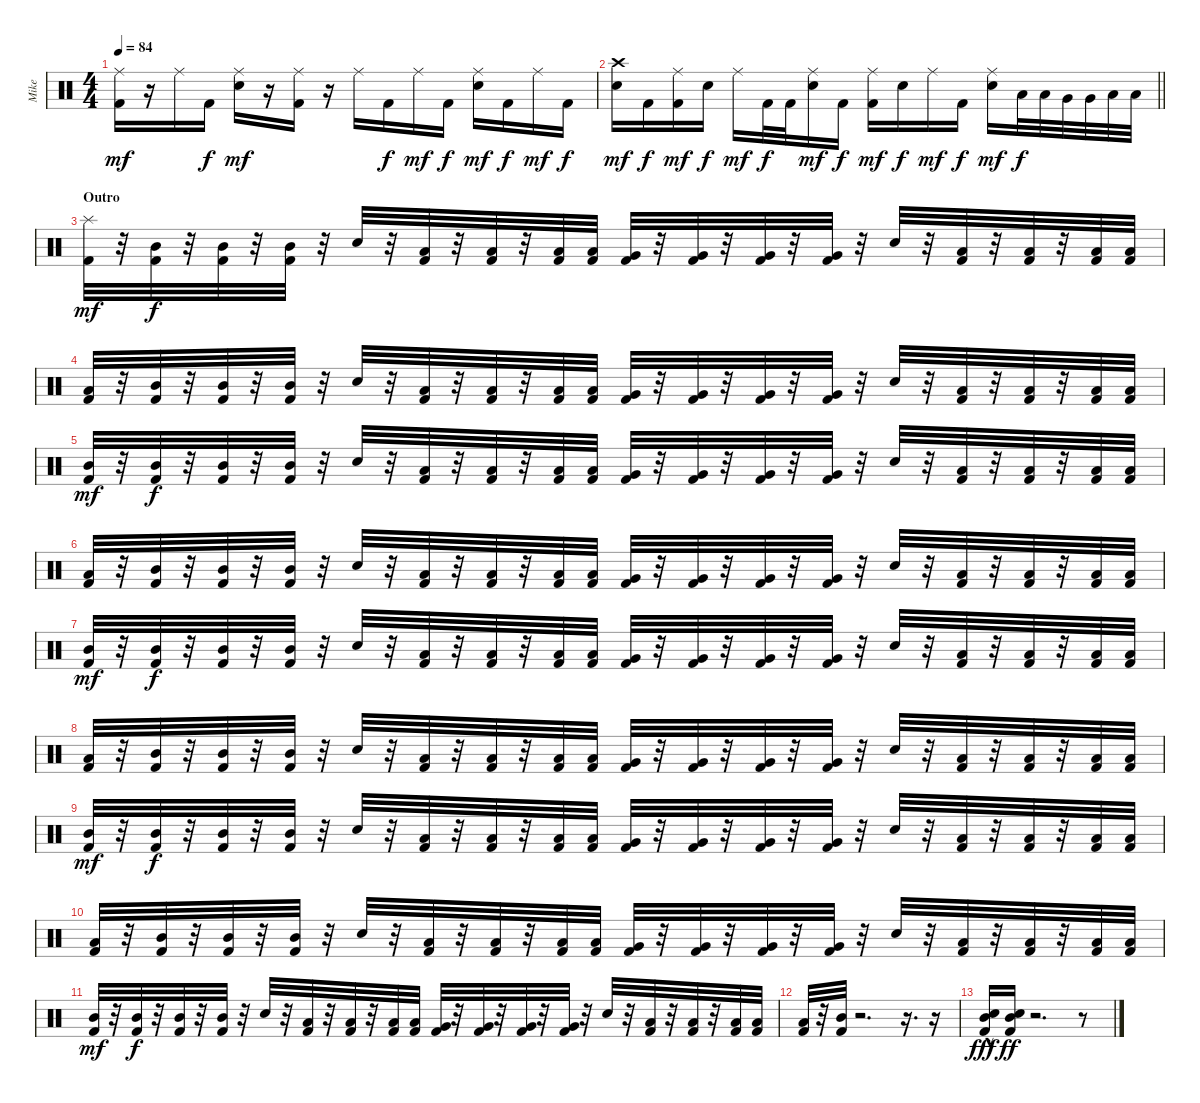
\track ("Mike" "Mike") {instrument percussion}
\staff {score}
\articulation defaults
\ts (4 4)
\tempo 84
\clef neutral
\ks c
("Ride (middle)" "Kick (hit) 2").16{dy mf} r.16 "Ride (middle)".16 "Kick (hit) 2".16{dy f} ("Ride (middle)" "Snare (hit) 2").16{dy mf} r.16 ("Ride (middle)" "Kick (hit) 2").16 r.16 "Ride (middle)".16 "Kick (hit) 2".16{dy f} "Ride (middle)".16{dy mf} "Kick (hit) 2".16{dy f} ("Ride (middle)" "Snare (hit) 2").16{dy mf} "Kick (hit) 2".16{dy f} "Ride (middle)".16{dy mf} "Kick (hit) 2".16{dy f} |
\barLineRight lightlight
("Crash high (hit)" "Snare (hit) 2").16{dy mf} "Kick (hit) 2".16{dy f} ("Ride (middle)" "Kick (hit) 2").16{dy mf} "Snare (hit) 2".16{dy f} "Ride (middle)".16{dy mf} "Kick (hit) 2".32{dy f} "Kick (hit) 2".32 ("Ride (middle)" "Snare (hit) 2").16{dy mf} "Kick (hit) 2".16{dy f} ("Ride (middle)" "Kick (hit) 2").16{dy mf} "Snare (hit) 2".16{dy f} "Ride (middle)".16{dy mf} "Kick (hit) 2".16{dy f} ("Ride (middle)" "Snare (hit) 2").16{dy mf} "Low Tom (hit)".32{dy f} "Low Tom (hit)".32 "Very Low Tom (hit)".32 "Very Low Tom (hit)".32 "Low Floor Tom (hit)".32 "Low Floor Tom (hit)".32 |
\section ("" "Outro")
("Splash (hit)" "Kick (hit) 2").32{dy mf} r.32 ("Mid Tom (hit)" "Kick (hit) 2").32{dy f} r.32 ("Mid Tom (hit)" "Kick (hit) 2").32 r.32 ("Mid Tom (hit)" "Kick (hit) 2").32 r.32 "Snare (hit) 2".32 r.32 ("Low Tom (hit)" "Kick (hit) 2").32 r.32 ("Low Tom (hit)" "Kick (hit) 2").32 r.32 ("Low Tom (hit)" "Kick (hit) 2").32 ("Low Tom (hit)" "Kick (hit) 2").32 ("Very Low Tom (hit)" "Kick (hit) 2").32 r.32 ("Very Low Tom (hit)" "Kick (hit) 2").32 r.32 ("Very Low Tom (hit)" "Kick (hit) 2").32 r.32 ("Very Low Tom (hit)" "Kick (hit) 2").32 r.32 "Snare (hit) 2".32 r.32 ("Low Tom (hit)" "Kick (hit) 2").32 r.32 ("Low Tom (hit)" "Kick (hit) 2").32 r.32 ("Low Tom (hit)" "Kick (hit) 2").32 ("Low Tom (hit)" "Kick (hit) 2").32 |
("Low Tom (hit)" "Kick (hit) 2").32 r.32 ("Mid Tom (hit)" "Kick (hit) 2").32 r.32 ("Mid Tom (hit)" "Kick (hit) 2").32 r.32 ("Mid Tom (hit)" "Kick (hit) 2").32 r.32 "Snare (hit) 2".32 r.32 ("Low Tom (hit)" "Kick (hit) 2").32 r.32 ("Low Tom (hit)" "Kick (hit) 2").32 r.32 ("Low Tom (hit)" "Kick (hit) 2").32 ("Low Tom (hit)" "Kick (hit) 2").32 ("Very Low Tom (hit)" "Kick (hit) 2").32 r.32 ("Very Low Tom (hit)" "Kick (hit) 2").32 r.32 ("Very Low Tom (hit)" "Kick (hit) 2").32 r.32 ("Very Low Tom (hit)" "Kick (hit) 2").32 r.32 "Snare (hit) 2".32 r.32 ("Low Tom (hit)" "Kick (hit) 2").32 r.32 ("Low Tom (hit)" "Kick (hit) 2").32 r.32 ("Low Tom (hit)" "Kick (hit) 2").32 ("Low Tom (hit)" "Kick (hit) 2").32 |
("Mid Tom (hit)" "Kick (hit) 2").32{dy mf} r.32 ("Mid Tom (hit)" "Kick (hit) 2").32{dy f} r.32 ("Mid Tom (hit)" "Kick (hit) 2").32 r.32 ("Mid Tom (hit)" "Kick (hit) 2").32 r.32 "Snare (hit) 2".32 r.32 ("Low Tom (hit)" "Kick (hit) 2").32 r.32 ("Low Tom (hit)" "Kick (hit) 2").32 r.32 ("Low Tom (hit)" "Kick (hit) 2").32 ("Low Tom (hit)" "Kick (hit) 2").32 ("Very Low Tom (hit)" "Kick (hit) 2").32 r.32 ("Very Low Tom (hit)" "Kick (hit) 2").32 r.32 ("Very Low Tom (hit)" "Kick (hit) 2").32 r.32 ("Very Low Tom (hit)" "Kick (hit) 2").32 r.32 "Snare (hit) 2".32 r.32 ("Low Tom (hit)" "Kick (hit) 2").32 r.32 ("Low Tom (hit)" "Kick (hit) 2").32 r.32 ("Low Tom (hit)" "Kick (hit) 2").32 ("Low Tom (hit)" "Kick (hit) 2").32 |
("Low Tom (hit)" "Kick (hit) 2").32 r.32 ("Mid Tom (hit)" "Kick (hit) 2").32 r.32 ("Mid Tom (hit)" "Kick (hit) 2").32 r.32 ("Mid Tom (hit)" "Kick (hit) 2").32 r.32 "Snare (hit) 2".32 r.32 ("Low Tom (hit)" "Kick (hit) 2").32 r.32 ("Low Tom (hit)" "Kick (hit) 2").32 r.32 ("Low Tom (hit)" "Kick (hit) 2").32 ("Low Tom (hit)" "Kick (hit) 2").32 ("Very Low Tom (hit)" "Kick (hit) 2").32 r.32 ("Very Low Tom (hit)" "Kick (hit) 2").32 r.32 ("Very Low Tom (hit)" "Kick (hit) 2").32 r.32 ("Very Low Tom (hit)" "Kick (hit) 2").32 r.32 "Snare (hit) 2".32 r.32 ("Low Tom (hit)" "Kick (hit) 2").32 r.32 ("Low Tom (hit)" "Kick (hit) 2").32 r.32 ("Low Tom (hit)" "Kick (hit) 2").32 ("Low Tom (hit)" "Kick (hit) 2").32 |
("Mid Tom (hit)" "Kick (hit) 2").32{dy mf volume 2} r.32 ("Mid Tom (hit)" "Kick (hit) 2").32{dy f} r.32 ("Mid Tom (hit)" "Kick (hit) 2").32 r.32 ("Mid Tom (hit)" "Kick (hit) 2").32 r.32 "Snare (hit) 2".32 r.32 ("Low Tom (hit)" "Kick (hit) 2").32 r.32 ("Low Tom (hit)" "Kick (hit) 2").32 r.32 ("Low Tom (hit)" "Kick (hit) 2").32 ("Low Tom (hit)" "Kick (hit) 2").32 ("Very Low Tom (hit)" "Kick (hit) 2").32 r.32 ("Very Low Tom (hit)" "Kick (hit) 2").32 r.32 ("Very Low Tom (hit)" "Kick (hit) 2").32 r.32 ("Very Low Tom (hit)" "Kick (hit) 2").32 r.32 "Snare (hit) 2".32 r.32 ("Low Tom (hit)" "Kick (hit) 2").32 r.32 ("Low Tom (hit)" "Kick (hit) 2").32 r.32 ("Low Tom (hit)" "Kick (hit) 2").32 ("Low Tom (hit)" "Kick (hit) 2").32 |
("Low Tom (hit)" "Kick (hit) 2").32 r.32 ("Mid Tom (hit)" "Kick (hit) 2").32 r.32 ("Mid Tom (hit)" "Kick (hit) 2").32 r.32 ("Mid Tom (hit)" "Kick (hit) 2").32 r.32 "Snare (hit) 2".32 r.32 ("Low Tom (hit)" "Kick (hit) 2").32 r.32 ("Low Tom (hit)" "Kick (hit) 2").32 r.32 ("Low Tom (hit)" "Kick (hit) 2").32 ("Low Tom (hit)" "Kick (hit) 2").32 ("Very Low Tom (hit)" "Kick (hit) 2").32 r.32 ("Very Low Tom (hit)" "Kick (hit) 2").32 r.32 ("Very Low Tom (hit)" "Kick (hit) 2").32 r.32 ("Very Low Tom (hit)" "Kick (hit) 2").32 r.32 "Snare (hit) 2".32 r.32 ("Low Tom (hit)" "Kick (hit) 2").32 r.32 ("Low Tom (hit)" "Kick (hit) 2").32 r.32 ("Low Tom (hit)" "Kick (hit) 2").32 ("Low Tom (hit)" "Kick (hit) 2").32 |
("Mid Tom (hit)" "Kick (hit) 2").32{dy mf} r.32 ("Mid Tom (hit)" "Kick (hit) 2").32{dy f} r.32 ("Mid Tom (hit)" "Kick (hit) 2").32 r.32 ("Mid Tom (hit)" "Kick (hit) 2").32 r.32 "Snare (hit) 2".32 r.32 ("Low Tom (hit)" "Kick (hit) 2").32 r.32 ("Low Tom (hit)" "Kick (hit) 2").32 r.32 ("Low Tom (hit)" "Kick (hit) 2").32 ("Low Tom (hit)" "Kick (hit) 2").32 ("Very Low Tom (hit)" "Kick (hit) 2").32 r.32 ("Very Low Tom (hit)" "Kick (hit) 2").32 r.32 ("Very Low Tom (hit)" "Kick (hit) 2").32 r.32 ("Very Low Tom (hit)" "Kick (hit) 2").32 r.32 "Snare (hit) 2".32 r.32 ("Low Tom (hit)" "Kick (hit) 2").32 r.32 ("Low Tom (hit)" "Kick (hit) 2").32 r.32 ("Low Tom (hit)" "Kick (hit) 2").32 ("Low Tom (hit)" "Kick (hit) 2").32 |
("Low Tom (hit)" "Kick (hit) 2").32 r.32 ("Mid Tom (hit)" "Kick (hit) 2").32 r.32 ("Mid Tom (hit)" "Kick (hit) 2").32 r.32 ("Mid Tom (hit)" "Kick (hit) 2").32 r.32 "Snare (hit) 2".32 r.32 ("Low Tom (hit)" "Kick (hit) 2").32 r.32 ("Low Tom (hit)" "Kick (hit) 2").32 r.32 ("Low Tom (hit)" "Kick (hit) 2").32 ("Low Tom (hit)" "Kick (hit) 2").32 ("Very Low Tom (hit)" "Kick (hit) 2").32 r.32 ("Very Low Tom (hit)" "Kick (hit) 2").32 r.32 ("Very Low Tom (hit)" "Kick (hit) 2").32 r.32 ("Very Low Tom (hit)" "Kick (hit) 2").32 r.32 "Snare (hit) 2".32 r.32 ("Low Tom (hit)" "Kick (hit) 2").32 r.32 ("Low Tom (hit)" "Kick (hit) 2").32 r.32 ("Low Tom (hit)" "Kick (hit) 2").32 ("Low Tom (hit)" "Kick (hit) 2").32 |
("Mid Tom (hit)" "Kick (hit) 2").32{dy mf volume 0} r.32 ("Mid Tom (hit)" "Kick (hit) 2").32{dy f} r.32 ("Mid Tom (hit)" "Kick (hit) 2").32 r.32 ("Mid Tom (hit)" "Kick (hit) 2").32 r.32 "Snare (hit) 2".32 r.32 ("Low Tom (hit)" "Kick (hit) 2").32 r.32 ("Low Tom (hit)" "Kick (hit) 2").32 r.32 ("Low Tom (hit)" "Kick (hit) 2").32 ("Low Tom (hit)" "Kick (hit) 2").32 ("Very Low Tom (hit)" "Kick (hit) 2").32 r.32 ("Very Low Tom (hit)" "Kick (hit) 2").32 r.32 ("Very Low Tom (hit)" "Kick (hit) 2").32 r.32 ("Very Low Tom (hit)" "Kick (hit) 2").32 r.32 "Snare (hit) 2".32 r.32 ("Low Tom (hit)" "Kick (hit) 2").32 r.32 ("Low Tom (hit)" "Kick (hit) 2").32 r.32 ("Low Tom (hit)" "Kick (hit) 2").32 ("Low Tom (hit)" "Kick (hit) 2").32 |
("Low Tom (hit)" "Kick (hit) 2").32 r.32 ("Mid Tom (hit)" "Kick (hit) 2").32 r.2{d} r.16{d} r.16 |
("Mid Tom (hit)"{hac} "Snare (hit) 2"{hac} "Kick (hit) 2"{hac}).16{dy fff volume 11} ("Mid Tom (hit)" "Snare (hit) 2" "Kick (hit) 2").16{dy ff} r.2{d} r.8
